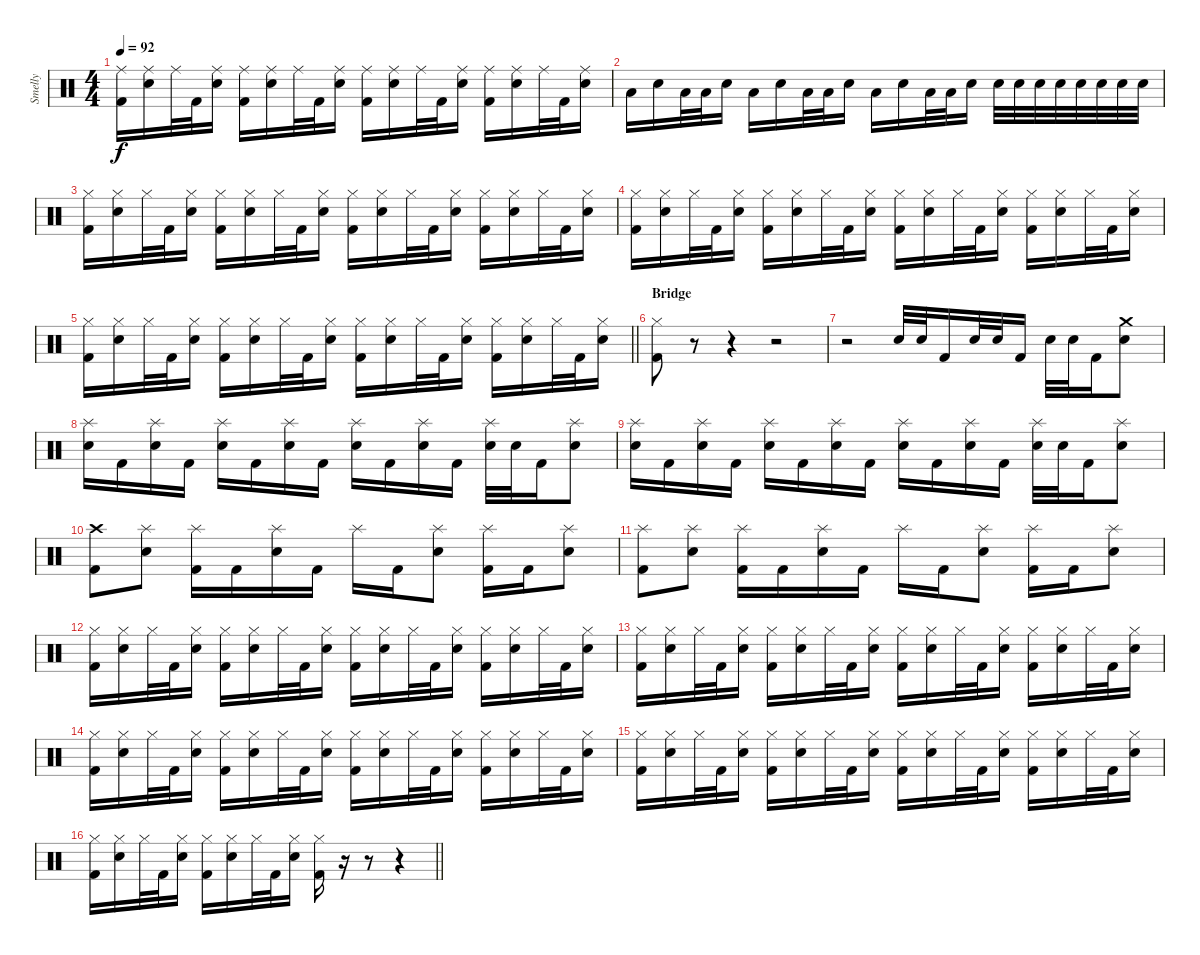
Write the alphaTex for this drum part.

\track ("Smelly" "Smelly") {instrument percussion}
\staff {score}
\articulation defaults
\ts (4 4)
\tempo 92
\clef neutral
\ks c
("Ride (middle)" "Kick (hit) 2").16{dy f} ("Ride (middle)" "Electric Snare (hit)").16 "Ride (middle)".32 "Kick (hit) 2".32 ("Ride (middle)" "Electric Snare (hit)").16 ("Ride (middle)" "Kick (hit) 2").16 ("Ride (middle)" "Electric Snare (hit)").16 "Ride (middle)".32 "Kick (hit) 2".32 ("Ride (middle)" "Electric Snare (hit)").16 ("Ride (middle)" "Kick (hit) 2").16 ("Ride (middle)" "Electric Snare (hit)").16 "Ride (middle)".32 "Kick (hit) 2".32 ("Ride (middle)" "Electric Snare (hit)").16 ("Ride (middle)" "Kick (hit) 2").16 ("Ride (middle)" "Electric Snare (hit)").16 "Ride (middle)".32 "Kick (hit) 2".32 ("Ride (middle)" "Electric Snare (hit)").16 |
"Low Floor Tom (hit)".16 "Electric Snare (hit)".16 "Low Floor Tom (hit)".32 "Low Floor Tom (hit)".32 "Electric Snare (hit)".16 "Low Floor Tom (hit)".16 "Electric Snare (hit)".16 "Low Floor Tom (hit)".32 "Low Floor Tom (hit)".32 "Electric Snare (hit)".16 "Low Floor Tom (hit)".16 "Electric Snare (hit)".16 "Low Floor Tom (hit)".32 "Low Floor Tom (hit)".32 "Electric Snare (hit)".16 "Electric Snare (hit)".32 "Electric Snare (hit)".32 "Electric Snare (hit)".32 "Electric Snare (hit)".32 "Electric Snare (hit)".32 "Electric Snare (hit)".32 "Electric Snare (hit)".32 "Electric Snare (hit)".32 |
("Hi-Hat (closed)" "Kick (hit) 2").16 ("Hi-Hat (closed)" "Electric Snare (hit)").16 "Hi-Hat (closed)".32 "Kick (hit) 2".32 ("Hi-Hat (closed)" "Electric Snare (hit)").16 ("Hi-Hat (closed)" "Kick (hit) 2").16 ("Hi-Hat (closed)" "Electric Snare (hit)").16 "Hi-Hat (closed)".32 "Kick (hit) 2".32 ("Hi-Hat (closed)" "Electric Snare (hit)").16 ("Hi-Hat (closed)" "Kick (hit) 2").16 ("Hi-Hat (closed)" "Electric Snare (hit)").16 "Hi-Hat (closed)".32 "Kick (hit) 2".32 ("Hi-Hat (closed)" "Electric Snare (hit)").16 ("Hi-Hat (closed)" "Kick (hit) 2").16 ("Hi-Hat (closed)" "Electric Snare (hit)").16 "Hi-Hat (closed)".32 "Kick (hit) 2".32 ("Hi-Hat (closed)" "Electric Snare (hit)").16 |
("Hi-Hat (closed)" "Kick (hit) 2").16 ("Hi-Hat (closed)" "Electric Snare (hit)").16 "Hi-Hat (closed)".32 "Kick (hit) 2".32 ("Hi-Hat (closed)" "Electric Snare (hit)").16 ("Hi-Hat (closed)" "Kick (hit) 2").16 ("Hi-Hat (closed)" "Electric Snare (hit)").16 "Hi-Hat (closed)".32 "Kick (hit) 2".32 ("Hi-Hat (closed)" "Electric Snare (hit)").16 ("Hi-Hat (closed)" "Kick (hit) 2").16 ("Hi-Hat (closed)" "Electric Snare (hit)").16 "Hi-Hat (closed)".32 "Kick (hit) 2".32 ("Hi-Hat (closed)" "Electric Snare (hit)").16 ("Hi-Hat (closed)" "Kick (hit) 2").16 ("Hi-Hat (closed)" "Electric Snare (hit)").16 "Hi-Hat (closed)".32 "Kick (hit) 2".32 ("Hi-Hat (closed)" "Electric Snare (hit)").16 |
\barLineRight lightlight
("Hi-Hat (closed)" "Kick (hit) 2").16 ("Hi-Hat (closed)" "Electric Snare (hit)").16 "Hi-Hat (closed)".32 "Kick (hit) 2".32 ("Hi-Hat (closed)" "Electric Snare (hit)").16 ("Hi-Hat (closed)" "Kick (hit) 2").16 ("Hi-Hat (closed)" "Electric Snare (hit)").16 "Hi-Hat (closed)".32 "Kick (hit) 2".32 ("Hi-Hat (closed)" "Electric Snare (hit)").16 ("Hi-Hat (closed)" "Kick (hit) 2").16 ("Hi-Hat (closed)" "Electric Snare (hit)").16 "Hi-Hat (closed)".32 "Kick (hit) 2".32 ("Hi-Hat (closed)" "Electric Snare (hit)").16 ("Hi-Hat (closed)" "Kick (hit) 2").16 ("Hi-Hat (closed)" "Electric Snare (hit)").16 "Hi-Hat (closed)".32 "Kick (hit) 2".32 ("Hi-Hat (closed)" "Electric Snare (hit)").16 |
\section ("" "Bridge")
("Hi-Hat (closed)" "Kick (hit) 2").8 r.8 r.4 r.2 |
r.2 "Electric Snare (hit)".32 "Electric Snare (hit)".32 "Kick (hit) 2".16 "Electric Snare (hit)".32 "Electric Snare (hit)".32 "Kick (hit) 2".16 "Electric Snare (hit)".32 "Electric Snare (hit)".32 "Kick (hit) 2".16 ("Crash medium (hit)" "Electric Snare (hit)").8 |
("Splash (hit)" "Electric Snare (hit)").16 "Kick (hit) 2".16 ("Splash (hit)" "Electric Snare (hit)").16 "Kick (hit) 2".16 ("Splash (hit)" "Electric Snare (hit)").16 "Kick (hit) 2".16 ("Splash (hit)" "Electric Snare (hit)").16 "Kick (hit) 2".16 ("Splash (hit)" "Electric Snare (hit)").16 "Kick (hit) 2".16 ("Splash (hit)" "Electric Snare (hit)").16 "Kick (hit) 2".16 ("Splash (hit)" "Electric Snare (hit)").32 "Electric Snare (hit)".32 "Kick (hit) 2".16 ("Splash (hit)" "Electric Snare (hit)").8 |
("Splash (hit)" "Electric Snare (hit)").16 "Kick (hit) 2".16 ("Splash (hit)" "Electric Snare (hit)").16 "Kick (hit) 2".16 ("Splash (hit)" "Electric Snare (hit)").16 "Kick (hit) 2".16 ("Splash (hit)" "Electric Snare (hit)").16 "Kick (hit) 2".16 ("Splash (hit)" "Electric Snare (hit)").16 "Kick (hit) 2".16 ("Splash (hit)" "Electric Snare (hit)").16 "Kick (hit) 2".16 ("Splash (hit)" "Electric Snare (hit)").32 "Electric Snare (hit)".32 "Kick (hit) 2".16 ("Splash (hit)" "Electric Snare (hit)").8 |
("Crash high (hit)" "Kick (hit) 2").8 ("Splash (hit)" "Electric Snare (hit)").8 ("Splash (hit)" "Kick (hit) 2").16 "Kick (hit) 2".16 ("Splash (hit)" "Electric Snare (hit)").16 "Kick (hit) 2".16 "Splash (hit)".16 "Kick (hit) 2".16 ("Splash (hit)" "Electric Snare (hit)").8 ("Splash (hit)" "Kick (hit) 2").16 "Kick (hit) 2".16 ("Splash (hit)" "Electric Snare (hit)").8 |
("Splash (hit)" "Kick (hit) 2").8 ("Splash (hit)" "Electric Snare (hit)").8 ("Splash (hit)" "Kick (hit) 2").16 "Kick (hit) 2".16 ("Splash (hit)" "Electric Snare (hit)").16 "Kick (hit) 2".16 "Splash (hit)".16 "Kick (hit) 2".16 ("Splash (hit)" "Electric Snare (hit)").8 ("Splash (hit)" "Kick (hit) 2").16 "Kick (hit) 2".16 ("Splash (hit)" "Electric Snare (hit)").8 |
("Hi-Hat (closed)" "Kick (hit) 2").16 ("Hi-Hat (closed)" "Electric Snare (hit)").16 "Hi-Hat (closed)".32 "Kick (hit) 2".32 ("Hi-Hat (closed)" "Electric Snare (hit)").16 ("Hi-Hat (closed)" "Kick (hit) 2").16 ("Hi-Hat (closed)" "Electric Snare (hit)").16 "Hi-Hat (closed)".32 "Kick (hit) 2".32 ("Hi-Hat (closed)" "Electric Snare (hit)").16 ("Hi-Hat (closed)" "Kick (hit) 2").16 ("Hi-Hat (closed)" "Electric Snare (hit)").16 "Hi-Hat (closed)".32 "Kick (hit) 2".32 ("Hi-Hat (closed)" "Electric Snare (hit)").16 ("Hi-Hat (closed)" "Kick (hit) 2").16 ("Hi-Hat (closed)" "Electric Snare (hit)").16 "Hi-Hat (closed)".32 "Kick (hit) 2".32 ("Hi-Hat (closed)" "Electric Snare (hit)").16 |
("Hi-Hat (closed)" "Kick (hit) 2").16 ("Hi-Hat (closed)" "Electric Snare (hit)").16 "Hi-Hat (closed)".32 "Kick (hit) 2".32 ("Hi-Hat (closed)" "Electric Snare (hit)").16 ("Hi-Hat (closed)" "Kick (hit) 2").16 ("Hi-Hat (closed)" "Electric Snare (hit)").16 "Hi-Hat (closed)".32 "Kick (hit) 2".32 ("Hi-Hat (closed)" "Electric Snare (hit)").16 ("Hi-Hat (closed)" "Kick (hit) 2").16 ("Hi-Hat (closed)" "Electric Snare (hit)").16 "Hi-Hat (closed)".32 "Kick (hit) 2".32 ("Hi-Hat (closed)" "Electric Snare (hit)").16 ("Hi-Hat (closed)" "Kick (hit) 2").16 ("Hi-Hat (closed)" "Electric Snare (hit)").16 "Hi-Hat (closed)".32 "Kick (hit) 2".32 ("Hi-Hat (closed)" "Electric Snare (hit)").16 |
("Hi-Hat (closed)" "Kick (hit) 2").16 ("Hi-Hat (closed)" "Electric Snare (hit)").16 "Hi-Hat (closed)".32 "Kick (hit) 2".32 ("Hi-Hat (closed)" "Electric Snare (hit)").16 ("Hi-Hat (closed)" "Kick (hit) 2").16 ("Hi-Hat (closed)" "Electric Snare (hit)").16 "Hi-Hat (closed)".32 "Kick (hit) 2".32 ("Hi-Hat (closed)" "Electric Snare (hit)").16 ("Hi-Hat (closed)" "Kick (hit) 2").16 ("Hi-Hat (closed)" "Electric Snare (hit)").16 "Hi-Hat (closed)".32 "Kick (hit) 2".32 ("Hi-Hat (closed)" "Electric Snare (hit)").16 ("Hi-Hat (closed)" "Kick (hit) 2").16 ("Hi-Hat (closed)" "Electric Snare (hit)").16 "Hi-Hat (closed)".32 "Kick (hit) 2".32 ("Hi-Hat (closed)" "Electric Snare (hit)").16 |
("Hi-Hat (closed)" "Kick (hit) 2").16 ("Hi-Hat (closed)" "Electric Snare (hit)").16 "Hi-Hat (closed)".32 "Kick (hit) 2".32 ("Hi-Hat (closed)" "Electric Snare (hit)").16 ("Hi-Hat (closed)" "Kick (hit) 2").16 ("Hi-Hat (closed)" "Electric Snare (hit)").16 "Hi-Hat (closed)".32 "Kick (hit) 2".32 ("Hi-Hat (closed)" "Electric Snare (hit)").16 ("Hi-Hat (closed)" "Kick (hit) 2").16 ("Hi-Hat (closed)" "Electric Snare (hit)").16 "Hi-Hat (closed)".32 "Kick (hit) 2".32 ("Hi-Hat (closed)" "Electric Snare (hit)").16 ("Hi-Hat (closed)" "Kick (hit) 2").16 ("Hi-Hat (closed)" "Electric Snare (hit)").16 "Hi-Hat (closed)".32 "Kick (hit) 2".32 ("Hi-Hat (closed)" "Electric Snare (hit)").16 |
\barLineRight lightlight
("Hi-Hat (closed)" "Kick (hit) 2").16 ("Hi-Hat (closed)" "Electric Snare (hit)").16 "Hi-Hat (closed)".32 "Kick (hit) 2".32 ("Hi-Hat (closed)" "Electric Snare (hit)").16 ("Hi-Hat (closed)" "Kick (hit) 2").16 ("Hi-Hat (closed)" "Electric Snare (hit)").16 "Hi-Hat (closed)".32 "Kick (hit) 2".32 ("Hi-Hat (closed)" "Electric Snare (hit)").16 ("Hi-Hat (closed)" "Kick (hit) 2").16 r.16 r.8 r.4
